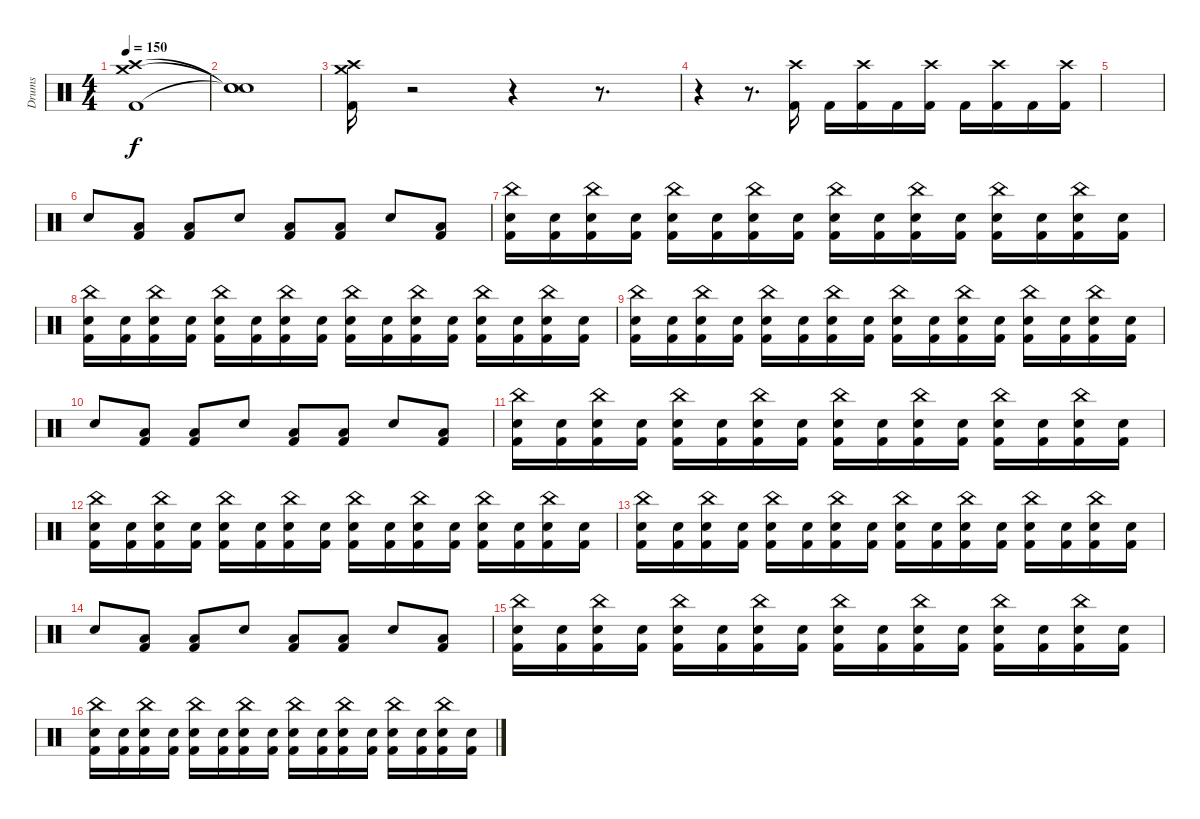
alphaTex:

\track ("Drums" "Drums") {instrument percussion}
\staff {score}
\articulation defaults
\ts (4 4)
\tempo 150
\clef neutral
\ks c
("Crash medium (hit)" "Crash high (hit)" "Kick (hit) 2").1{dy f} |
("Snare (hit)"{t} "Snare (hit)"{t} "Snare (hit)"{t}).1 |
("Crash medium (hit)" "Crash high (hit)" "Kick (hit) 2").16 r.2 r.4 r.8{d} |
r.4 r.8{d} ("Crash high (hit)" "Kick (hit) 2").16 "Kick (hit) 2".16 ("Crash high (hit)" "Kick (hit) 2").16 "Kick (hit) 2".16 ("Crash high (hit)" "Kick (hit) 2").16 "Kick (hit) 2".16 ("Crash high (hit)" "Kick (hit) 2").16 "Kick (hit) 2".16 ("Crash high (hit)" "Kick (hit) 2").16 |
|
"Electric Snare (hit)".8 ("Low Floor Tom (hit)" "Kick (hit) 2").8 ("Low Floor Tom (hit)" "Kick (hit) 2").8 "Electric Snare (hit)".8 ("Low Floor Tom (hit)" "Kick (hit) 2").8 ("Low Floor Tom (hit)" "Kick (hit) 2").8 "Electric Snare (hit)".8 ("Low Floor Tom (hit)" "Kick (hit) 2").8 |
("China (hit)" "Electric Snare (hit)" "Kick (hit) 2").16 ("Electric Snare (hit)" "Kick (hit) 2").16 ("China (hit)" "Electric Snare (hit)" "Kick (hit) 2").16 ("Electric Snare (hit)" "Kick (hit) 2").16 ("China (hit)" "Electric Snare (hit)" "Kick (hit) 2").16 ("Electric Snare (hit)" "Kick (hit) 2").16 ("China (hit)" "Electric Snare (hit)" "Kick (hit) 2").16 ("Electric Snare (hit)" "Kick (hit) 2").16 ("China (hit)" "Electric Snare (hit)" "Kick (hit) 2").16 ("Electric Snare (hit)" "Kick (hit) 2").16 ("China (hit)" "Electric Snare (hit)" "Kick (hit) 2").16 ("Electric Snare (hit)" "Kick (hit) 2").16 ("China (hit)" "Electric Snare (hit)" "Kick (hit) 2").16 ("Electric Snare (hit)" "Kick (hit) 2").16 ("China (hit)" "Electric Snare (hit)" "Kick (hit) 2").16 ("Electric Snare (hit)" "Kick (hit) 2").16 |
("China (hit)" "Electric Snare (hit)" "Kick (hit) 2").16 ("Electric Snare (hit)" "Kick (hit) 2").16 ("China (hit)" "Electric Snare (hit)" "Kick (hit) 2").16 ("Electric Snare (hit)" "Kick (hit) 2").16 ("China (hit)" "Electric Snare (hit)" "Kick (hit) 2").16 ("Electric Snare (hit)" "Kick (hit) 2").16 ("China (hit)" "Electric Snare (hit)" "Kick (hit) 2").16 ("Electric Snare (hit)" "Kick (hit) 2").16 ("China (hit)" "Electric Snare (hit)" "Kick (hit) 2").16 ("Electric Snare (hit)" "Kick (hit) 2").16 ("China (hit)" "Electric Snare (hit)" "Kick (hit) 2").16 ("Electric Snare (hit)" "Kick (hit) 2").16 ("China (hit)" "Electric Snare (hit)" "Kick (hit) 2").16 ("Electric Snare (hit)" "Kick (hit) 2").16 ("China (hit)" "Electric Snare (hit)" "Kick (hit) 2").16 ("Electric Snare (hit)" "Kick (hit) 2").16 |
("China (hit)" "Electric Snare (hit)" "Kick (hit) 2").16 ("Electric Snare (hit)" "Kick (hit) 2").16 ("China (hit)" "Electric Snare (hit)" "Kick (hit) 2").16 ("Electric Snare (hit)" "Kick (hit) 2").16 ("China (hit)" "Electric Snare (hit)" "Kick (hit) 2").16 ("Electric Snare (hit)" "Kick (hit) 2").16 ("China (hit)" "Electric Snare (hit)" "Kick (hit) 2").16 ("Electric Snare (hit)" "Kick (hit) 2").16 ("China (hit)" "Electric Snare (hit)" "Kick (hit) 2").16 ("Electric Snare (hit)" "Kick (hit) 2").16 ("China (hit)" "Electric Snare (hit)" "Kick (hit) 2").16 ("Electric Snare (hit)" "Kick (hit) 2").16 ("China (hit)" "Electric Snare (hit)" "Kick (hit) 2").16 ("Electric Snare (hit)" "Kick (hit) 2").16 ("China (hit)" "Electric Snare (hit)" "Kick (hit) 2").16 ("Electric Snare (hit)" "Kick (hit) 2").16 |
"Electric Snare (hit)".8 ("Low Floor Tom (hit)" "Kick (hit) 2").8 ("Low Floor Tom (hit)" "Kick (hit) 2").8 "Electric Snare (hit)".8 ("Low Floor Tom (hit)" "Kick (hit) 2").8 ("Low Floor Tom (hit)" "Kick (hit) 2").8 "Electric Snare (hit)".8 ("Low Floor Tom (hit)" "Kick (hit) 2").8 |
("China (hit)" "Electric Snare (hit)" "Kick (hit) 2").16 ("Electric Snare (hit)" "Kick (hit) 2").16 ("China (hit)" "Electric Snare (hit)" "Kick (hit) 2").16 ("Electric Snare (hit)" "Kick (hit) 2").16 ("China (hit)" "Electric Snare (hit)" "Kick (hit) 2").16 ("Electric Snare (hit)" "Kick (hit) 2").16 ("China (hit)" "Electric Snare (hit)" "Kick (hit) 2").16 ("Electric Snare (hit)" "Kick (hit) 2").16 ("China (hit)" "Electric Snare (hit)" "Kick (hit) 2").16 ("Electric Snare (hit)" "Kick (hit) 2").16 ("China (hit)" "Electric Snare (hit)" "Kick (hit) 2").16 ("Electric Snare (hit)" "Kick (hit) 2").16 ("China (hit)" "Electric Snare (hit)" "Kick (hit) 2").16 ("Electric Snare (hit)" "Kick (hit) 2").16 ("China (hit)" "Electric Snare (hit)" "Kick (hit) 2").16 ("Electric Snare (hit)" "Kick (hit) 2").16 |
("China (hit)" "Electric Snare (hit)" "Kick (hit) 2").16 ("Electric Snare (hit)" "Kick (hit) 2").16 ("China (hit)" "Electric Snare (hit)" "Kick (hit) 2").16 ("Electric Snare (hit)" "Kick (hit) 2").16 ("China (hit)" "Electric Snare (hit)" "Kick (hit) 2").16 ("Electric Snare (hit)" "Kick (hit) 2").16 ("China (hit)" "Electric Snare (hit)" "Kick (hit) 2").16 ("Electric Snare (hit)" "Kick (hit) 2").16 ("China (hit)" "Electric Snare (hit)" "Kick (hit) 2").16 ("Electric Snare (hit)" "Kick (hit) 2").16 ("China (hit)" "Electric Snare (hit)" "Kick (hit) 2").16 ("Electric Snare (hit)" "Kick (hit) 2").16 ("China (hit)" "Electric Snare (hit)" "Kick (hit) 2").16 ("Electric Snare (hit)" "Kick (hit) 2").16 ("China (hit)" "Electric Snare (hit)" "Kick (hit) 2").16 ("Electric Snare (hit)" "Kick (hit) 2").16 |
("China (hit)" "Electric Snare (hit)" "Kick (hit) 2").16 ("Electric Snare (hit)" "Kick (hit) 2").16 ("China (hit)" "Electric Snare (hit)" "Kick (hit) 2").16 ("Electric Snare (hit)" "Kick (hit) 2").16 ("China (hit)" "Electric Snare (hit)" "Kick (hit) 2").16 ("Electric Snare (hit)" "Kick (hit) 2").16 ("China (hit)" "Electric Snare (hit)" "Kick (hit) 2").16 ("Electric Snare (hit)" "Kick (hit) 2").16 ("China (hit)" "Electric Snare (hit)" "Kick (hit) 2").16 ("Electric Snare (hit)" "Kick (hit) 2").16 ("China (hit)" "Electric Snare (hit)" "Kick (hit) 2").16 ("Electric Snare (hit)" "Kick (hit) 2").16 ("China (hit)" "Electric Snare (hit)" "Kick (hit) 2").16 ("Electric Snare (hit)" "Kick (hit) 2").16 ("China (hit)" "Electric Snare (hit)" "Kick (hit) 2").16 ("Electric Snare (hit)" "Kick (hit) 2").16 |
"Electric Snare (hit)".8 ("Low Floor Tom (hit)" "Kick (hit) 2").8 ("Low Floor Tom (hit)" "Kick (hit) 2").8 "Electric Snare (hit)".8 ("Low Floor Tom (hit)" "Kick (hit) 2").8 ("Low Floor Tom (hit)" "Kick (hit) 2").8 "Electric Snare (hit)".8 ("Low Floor Tom (hit)" "Kick (hit) 2").8 |
("China (hit)" "Electric Snare (hit)" "Kick (hit) 2").16 ("Electric Snare (hit)" "Kick (hit) 2").16 ("China (hit)" "Electric Snare (hit)" "Kick (hit) 2").16 ("Electric Snare (hit)" "Kick (hit) 2").16 ("China (hit)" "Electric Snare (hit)" "Kick (hit) 2").16 ("Electric Snare (hit)" "Kick (hit) 2").16 ("China (hit)" "Electric Snare (hit)" "Kick (hit) 2").16 ("Electric Snare (hit)" "Kick (hit) 2").16 ("China (hit)" "Electric Snare (hit)" "Kick (hit) 2").16 ("Electric Snare (hit)" "Kick (hit) 2").16 ("China (hit)" "Electric Snare (hit)" "Kick (hit) 2").16 ("Electric Snare (hit)" "Kick (hit) 2").16 ("China (hit)" "Electric Snare (hit)" "Kick (hit) 2").16 ("Electric Snare (hit)" "Kick (hit) 2").16 ("China (hit)" "Electric Snare (hit)" "Kick (hit) 2").16 ("Electric Snare (hit)" "Kick (hit) 2").16 |
("China (hit)" "Electric Snare (hit)" "Kick (hit) 2").16 ("Electric Snare (hit)" "Kick (hit) 2").16 ("China (hit)" "Electric Snare (hit)" "Kick (hit) 2").16 ("Electric Snare (hit)" "Kick (hit) 2").16 ("China (hit)" "Electric Snare (hit)" "Kick (hit) 2").16 ("Electric Snare (hit)" "Kick (hit) 2").16 ("China (hit)" "Electric Snare (hit)" "Kick (hit) 2").16 ("Electric Snare (hit)" "Kick (hit) 2").16 ("China (hit)" "Electric Snare (hit)" "Kick (hit) 2").16 ("Electric Snare (hit)" "Kick (hit) 2").16 ("China (hit)" "Electric Snare (hit)" "Kick (hit) 2").16 ("Electric Snare (hit)" "Kick (hit) 2").16 ("China (hit)" "Electric Snare (hit)" "Kick (hit) 2").16 ("Electric Snare (hit)" "Kick (hit) 2").16 ("China (hit)" "Electric Snare (hit)" "Kick (hit) 2").16 ("Electric Snare (hit)" "Kick (hit) 2").16
